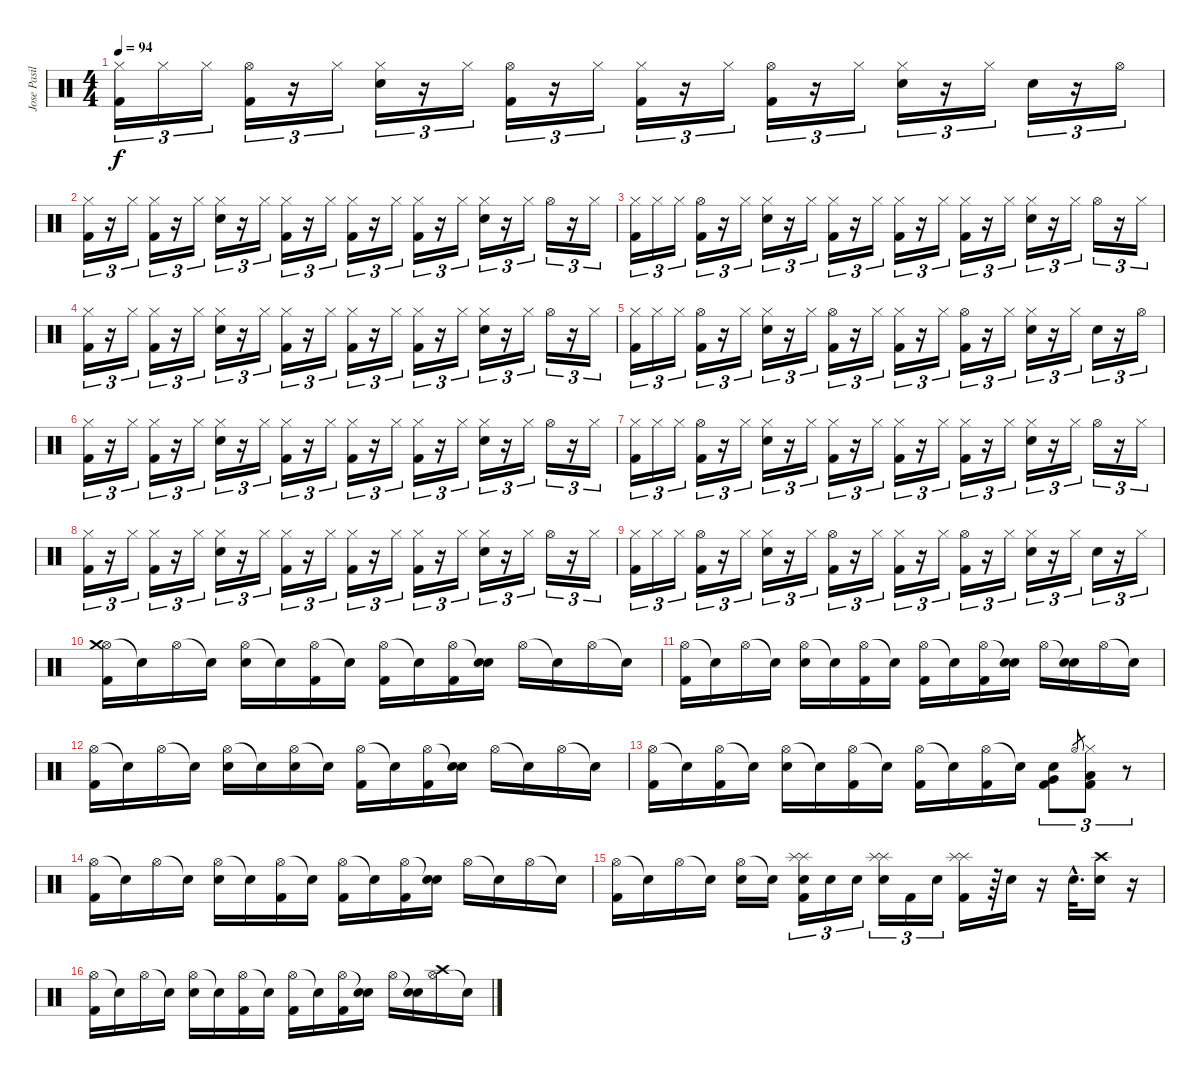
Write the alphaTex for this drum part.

\track ("Jose Pasillas" "Jose Pasil") {instrument percussion}
\staff {score}
\articulation defaults
\ts (4 4)
\tempo 94
\clef neutral
\ks c
("Hi-Hat (closed)" "Kick (hit) 2").16{tu (3 2) dy f} "Hi-Hat (closed)".16{tu (3 2)} "Hi-Hat (closed)".16{tu (3 2)} ("Hi-Hat (open)" "Kick (hit) 2").16{tu (3 2)} r.16{tu (3 2)} "Hi-Hat (closed)".16{tu (3 2)} ("Hi-Hat (closed)" "Electric Snare (hit)").16{tu (3 2)} r.16{tu (3 2)} "Hi-Hat (closed)".16{tu (3 2)} ("Hi-Hat (open)" "Kick (hit) 2").16{tu (3 2)} r.16{tu (3 2)} "Hi-Hat (closed)".16{tu (3 2)} ("Hi-Hat (closed)" "Kick (hit) 2").16{tu (3 2)} r.16{tu (3 2)} "Hi-Hat (closed)".16{tu (3 2)} ("Hi-Hat (open)" "Kick (hit) 2").16{tu (3 2)} r.16{tu (3 2)} "Hi-Hat (closed)".16{tu (3 2)} ("Hi-Hat (closed)" "Electric Snare (hit)").16{tu (3 2)} r.16{tu (3 2)} "Hi-Hat (closed)".16{tu (3 2)} "Electric Snare (hit)".16{tu (3 2)} r.16{tu (3 2)} "Hi-Hat (open)".16{tu (3 2)} |
("Hi-Hat (closed)" "Kick (hit) 2").16{tu (3 2)} r.16{tu (3 2)} "Hi-Hat (closed)".16{tu (3 2)} ("Hi-Hat (closed)" "Kick (hit) 2").16{tu (3 2)} r.16{tu (3 2)} "Hi-Hat (closed)".16{tu (3 2)} ("Hi-Hat (closed)" "Electric Snare (hit)").16{tu (3 2)} r.16{tu (3 2)} "Hi-Hat (closed)".16{tu (3 2)} ("Hi-Hat (closed)" "Kick (hit) 2").16{tu (3 2)} r.16{tu (3 2)} "Hi-Hat (closed)".16{tu (3 2)} ("Hi-Hat (closed)" "Kick (hit) 2").16{tu (3 2)} r.16{tu (3 2)} "Hi-Hat (closed)".16{tu (3 2)} ("Hi-Hat (closed)" "Kick (hit) 2").16{tu (3 2)} r.16{tu (3 2)} "Hi-Hat (closed)".16{tu (3 2)} ("Hi-Hat (closed)" "Electric Snare (hit)").16{tu (3 2)} r.16{tu (3 2)} "Hi-Hat (closed)".16{tu (3 2)} "Hi-Hat (open)".16{tu (3 2)} r.16{tu (3 2)} "Hi-Hat (closed)".16{tu (3 2)} |
("Hi-Hat (closed)" "Kick (hit) 2").16{tu (3 2)} "Hi-Hat (closed)".16{tu (3 2)} "Hi-Hat (closed)".16{tu (3 2)} ("Hi-Hat (open)" "Kick (hit) 2").16{tu (3 2)} r.16{tu (3 2)} "Hi-Hat (closed)".16{tu (3 2)} ("Hi-Hat (closed)" "Electric Snare (hit)").16{tu (3 2)} r.16{tu (3 2)} "Hi-Hat (closed)".16{tu (3 2)} ("Hi-Hat (closed)" "Kick (hit) 2").16{tu (3 2)} r.16{tu (3 2)} "Hi-Hat (closed)".16{tu (3 2)} ("Hi-Hat (closed)" "Kick (hit) 2").16{tu (3 2)} r.16{tu (3 2)} "Hi-Hat (closed)".16{tu (3 2)} ("Hi-Hat (closed)" "Kick (hit) 2").16{tu (3 2)} r.16{tu (3 2)} "Hi-Hat (closed)".16{tu (3 2)} ("Hi-Hat (closed)" "Electric Snare (hit)").16{tu (3 2)} r.16{tu (3 2)} "Hi-Hat (closed)".16{tu (3 2)} "Hi-Hat (open)".16{tu (3 2)} r.16{tu (3 2)} "Hi-Hat (closed)".16{tu (3 2)} |
("Hi-Hat (closed)" "Kick (hit) 2").16{tu (3 2)} r.16{tu (3 2)} "Hi-Hat (closed)".16{tu (3 2)} ("Hi-Hat (closed)" "Kick (hit) 2").16{tu (3 2)} r.16{tu (3 2)} "Hi-Hat (closed)".16{tu (3 2)} ("Hi-Hat (closed)" "Electric Snare (hit)").16{tu (3 2)} r.16{tu (3 2)} "Hi-Hat (closed)".16{tu (3 2)} ("Hi-Hat (closed)" "Kick (hit) 2").16{tu (3 2)} r.16{tu (3 2)} "Hi-Hat (closed)".16{tu (3 2)} ("Hi-Hat (closed)" "Kick (hit) 2").16{tu (3 2)} r.16{tu (3 2)} "Hi-Hat (closed)".16{tu (3 2)} ("Hi-Hat (closed)" "Kick (hit) 2").16{tu (3 2)} r.16{tu (3 2)} "Hi-Hat (closed)".16{tu (3 2)} ("Hi-Hat (closed)" "Electric Snare (hit)").16{tu (3 2)} r.16{tu (3 2)} "Hi-Hat (closed)".16{tu (3 2)} "Hi-Hat (open)".16{tu (3 2)} r.16{tu (3 2)} "Hi-Hat (closed)".16{tu (3 2)} |
("Hi-Hat (closed)" "Kick (hit) 2").16{tu (3 2)} "Hi-Hat (closed)".16{tu (3 2)} "Hi-Hat (closed)".16{tu (3 2)} ("Hi-Hat (open)" "Kick (hit) 2").16{tu (3 2)} r.16{tu (3 2)} "Hi-Hat (closed)".16{tu (3 2)} ("Hi-Hat (closed)" "Electric Snare (hit)").16{tu (3 2)} r.16{tu (3 2)} "Hi-Hat (closed)".16{tu (3 2)} ("Hi-Hat (open)" "Kick (hit) 2").16{tu (3 2)} r.16{tu (3 2)} "Hi-Hat (closed)".16{tu (3 2)} ("Hi-Hat (closed)" "Kick (hit) 2").16{tu (3 2)} r.16{tu (3 2)} "Hi-Hat (closed)".16{tu (3 2)} ("Hi-Hat (open)" "Kick (hit) 2").16{tu (3 2)} r.16{tu (3 2)} "Hi-Hat (closed)".16{tu (3 2)} ("Hi-Hat (closed)" "Electric Snare (hit)").16{tu (3 2)} r.16{tu (3 2)} "Hi-Hat (closed)".16{tu (3 2)} "Electric Snare (hit)".16{tu (3 2)} r.16{tu (3 2)} "Hi-Hat (open)".16{tu (3 2)} |
("Hi-Hat (closed)" "Kick (hit) 2").16{tu (3 2)} r.16{tu (3 2)} "Hi-Hat (closed)".16{tu (3 2)} ("Hi-Hat (closed)" "Kick (hit) 2").16{tu (3 2)} r.16{tu (3 2)} "Hi-Hat (closed)".16{tu (3 2)} ("Hi-Hat (closed)" "Electric Snare (hit)").16{tu (3 2)} r.16{tu (3 2)} "Hi-Hat (closed)".16{tu (3 2)} ("Hi-Hat (closed)" "Kick (hit) 2").16{tu (3 2)} r.16{tu (3 2)} "Hi-Hat (closed)".16{tu (3 2)} ("Hi-Hat (closed)" "Kick (hit) 2").16{tu (3 2)} r.16{tu (3 2)} "Hi-Hat (closed)".16{tu (3 2)} ("Hi-Hat (closed)" "Kick (hit) 2").16{tu (3 2)} r.16{tu (3 2)} "Hi-Hat (closed)".16{tu (3 2)} ("Hi-Hat (closed)" "Electric Snare (hit)").16{tu (3 2)} r.16{tu (3 2)} "Hi-Hat (closed)".16{tu (3 2)} "Hi-Hat (open)".16{tu (3 2)} r.16{tu (3 2)} "Hi-Hat (closed)".16{tu (3 2)} |
("Hi-Hat (closed)" "Kick (hit) 2").16{tu (3 2)} "Hi-Hat (closed)".16{tu (3 2)} "Hi-Hat (closed)".16{tu (3 2)} ("Hi-Hat (open)" "Kick (hit) 2").16{tu (3 2)} r.16{tu (3 2)} "Hi-Hat (closed)".16{tu (3 2)} ("Hi-Hat (closed)" "Electric Snare (hit)").16{tu (3 2)} r.16{tu (3 2)} "Hi-Hat (closed)".16{tu (3 2)} ("Hi-Hat (closed)" "Kick (hit) 2").16{tu (3 2)} r.16{tu (3 2)} "Hi-Hat (closed)".16{tu (3 2)} ("Hi-Hat (closed)" "Kick (hit) 2").16{tu (3 2)} r.16{tu (3 2)} "Hi-Hat (closed)".16{tu (3 2)} ("Hi-Hat (closed)" "Kick (hit) 2").16{tu (3 2)} r.16{tu (3 2)} "Hi-Hat (closed)".16{tu (3 2)} ("Hi-Hat (closed)" "Electric Snare (hit)").16{tu (3 2)} r.16{tu (3 2)} "Hi-Hat (closed)".16{tu (3 2)} "Hi-Hat (open)".16{tu (3 2)} r.16{tu (3 2)} "Hi-Hat (closed)".16{tu (3 2)} |
("Hi-Hat (closed)" "Kick (hit) 2").16{tu (3 2)} r.16{tu (3 2)} "Hi-Hat (closed)".16{tu (3 2)} ("Hi-Hat (closed)" "Kick (hit) 2").16{tu (3 2)} r.16{tu (3 2)} "Hi-Hat (closed)".16{tu (3 2)} ("Hi-Hat (closed)" "Electric Snare (hit)").16{tu (3 2)} r.16{tu (3 2)} "Hi-Hat (closed)".16{tu (3 2)} ("Hi-Hat (closed)" "Kick (hit) 2").16{tu (3 2)} r.16{tu (3 2)} "Hi-Hat (closed)".16{tu (3 2)} ("Hi-Hat (closed)" "Kick (hit) 2").16{tu (3 2)} r.16{tu (3 2)} "Hi-Hat (closed)".16{tu (3 2)} ("Hi-Hat (closed)" "Kick (hit) 2").16{tu (3 2)} r.16{tu (3 2)} "Hi-Hat (closed)".16{tu (3 2)} ("Hi-Hat (closed)" "Electric Snare (hit)").16{tu (3 2)} r.16{tu (3 2)} "Hi-Hat (closed)".16{tu (3 2)} "Hi-Hat (open)".16{tu (3 2)} r.16{tu (3 2)} "Hi-Hat (closed)".16{tu (3 2)} |
("Hi-Hat (closed)" "Kick (hit) 2").16{tu (3 2)} "Hi-Hat (closed)".16{tu (3 2)} "Hi-Hat (closed)".16{tu (3 2)} ("Hi-Hat (open)" "Kick (hit) 2").16{tu (3 2)} r.16{tu (3 2)} "Hi-Hat (closed)".16{tu (3 2)} ("Hi-Hat (closed)" "Electric Snare (hit)").16{tu (3 2)} r.16{tu (3 2)} "Hi-Hat (closed)".16{tu (3 2)} ("Hi-Hat (open)" "Kick (hit) 2").16{tu (3 2)} r.16{tu (3 2)} "Hi-Hat (closed)".16{tu (3 2)} ("Hi-Hat (closed)" "Kick (hit) 2").16{tu (3 2)} r.16{tu (3 2)} "Hi-Hat (closed)".16{tu (3 2)} ("Hi-Hat (open)" "Kick (hit) 2").16{tu (3 2)} r.16{tu (3 2)} "Hi-Hat (closed)".16{tu (3 2)} ("Hi-Hat (closed)" "Electric Snare (hit)").16{tu (3 2)} r.16{tu (3 2)} "Hi-Hat (closed)".16{tu (3 2)} "Electric Snare (hit)".16{tu (3 2)} r.16{tu (3 2)} "Hi-Hat (closed)".16{tu (3 2)} |
("Hi-Hat (open)" "Crash medium (hit)" "Kick (hit) 2").16 "Snare (hit)"{t}.16 "Hi-Hat (open)".16 "Snare (hit)"{t}.16 ("Hi-Hat (open)" "Electric Snare (hit)").16 "Snare (hit)"{t}.16 ("Hi-Hat (open)" "Kick (hit) 2").16 "Snare (hit)"{t}.16 ("Hi-Hat (open)" "Kick (hit) 2").16 "Snare (hit)"{t}.16 ("Hi-Hat (open)" "Kick (hit) 2").16 ("Snare (hit)"{t} "Electric Snare (hit)").16 "Hi-Hat (open)".16 "Snare (hit)"{t}.16 "Hi-Hat (open)".16 "Snare (hit)"{t}.16 |
("Hi-Hat (open)" "Kick (hit) 2").16 "Snare (hit)"{t}.16 "Hi-Hat (open)".16 "Snare (hit)"{t}.16 ("Hi-Hat (open)" "Electric Snare (hit)").16 "Snare (hit)"{t}.16 ("Hi-Hat (open)" "Kick (hit) 2").16 "Snare (hit)"{t}.16 ("Hi-Hat (open)" "Kick (hit) 2").16 "Snare (hit)"{t}.16 ("Hi-Hat (open)" "Kick (hit) 2").16 ("Snare (hit)"{t} "Electric Snare (hit)").16 "Hi-Hat (open)".16 ("Snare (hit)"{t} "Electric Snare (hit)").16 "Hi-Hat (open)".16 "Snare (hit)"{t}.16 |
("Hi-Hat (open)" "Kick (hit) 2").16 "Snare (hit)"{t}.16 "Hi-Hat (open)".16 "Snare (hit)"{t}.16 ("Hi-Hat (open)" "Electric Snare (hit)").16 "Snare (hit)"{t}.16 ("Hi-Hat (open)" "Electric Snare (hit)").16 "Snare (hit)"{t}.16 ("Hi-Hat (open)" "Kick (hit) 2").16 "Snare (hit)"{t}.16 ("Hi-Hat (open)" "Kick (hit) 2").16 ("Snare (hit)"{t} "Electric Snare (hit)").16 "Hi-Hat (open)".16 "Snare (hit)"{t}.16 "Hi-Hat (open)".16 "Snare (hit)"{t}.16 |
("Hi-Hat (open)" "Kick (hit) 2").16 "Snare (hit)"{t}.16 ("Hi-Hat (open)" "Kick (hit) 2").16 "Snare (hit)"{t}.16 ("Hi-Hat (open)" "Electric Snare (hit)").16 "Snare (hit)"{t}.16 ("Hi-Hat (open)" "Kick (hit) 2").16 "Snare (hit)"{t}.16 ("Hi-Hat (open)" "Kick (hit) 2").16 "Snare (hit)"{t}.16 ("Hi-Hat (open)" "Kick (hit) 2").16 "Snare (hit)"{t}.16 ("Kick (hit) 2" "Very Low Tom (hit)" "Electric Snare (hit)").8{tu (3 2)} "Hi-Hat (open)".8{gr} ("Hi-Hat (closed)" "Kick (hit) 2" "Low Floor Tom (hit)").8{tu (3 2)} r.8{tu (3 2)} |
("Hi-Hat (open)" "Kick (hit) 2").16 "Snare (hit)"{t}.16 "Hi-Hat (open)".16 "Snare (hit)"{t}.16 ("Hi-Hat (open)" "Electric Snare (hit)").16 "Snare (hit)"{t}.16 ("Hi-Hat (open)" "Kick (hit) 2").16 "Snare (hit)"{t}.16 ("Hi-Hat (open)" "Kick (hit) 2").16 "Snare (hit)"{t}.16 ("Hi-Hat (open)" "Kick (hit) 2").16 ("Snare (hit)"{t} "Electric Snare (hit)").16 "Hi-Hat (open)".16 "Snare (hit)"{t}.16 "Hi-Hat (open)".16 "Snare (hit)"{t}.16 |
("Hi-Hat (open)" "Kick (hit) 2").16 "Snare (hit)"{t}.16 "Hi-Hat (open)".16 "Snare (hit)"{t}.16 ("Hi-Hat (open)" "Electric Snare (hit)").16 "Snare (hit)"{t}.16 ("Splash (hit)" "Splash (hit)" "Electric Snare (hit)" "Kick (hit) 2").16{tu (3 2)} "Electric Snare (hit)".16{tu (3 2)} "Electric Snare (hit)".16{tu (3 2)} ("Splash (hit)" "Splash (hit)" "Electric Snare (hit)").16{tu (3 2)} "Kick (hit) 2".16{tu (3 2)} "Electric Snare (hit)".16{tu (3 2)} ("Splash (hit)" "Splash (hit)" "Kick (hit) 2").16 r.64 "Electric Snare (hit)".16 r.16 "Electric Snare (hit)"{hac}.32{d} ("Crash high (hit)" "Electric Snare (hit)").16 r.16 |
("Hi-Hat (open)" "Kick (hit) 2").16 "Snare (hit)"{t}.16 "Hi-Hat (open)".16 "Snare (hit)"{t}.16 ("Hi-Hat (open)" "Electric Snare (hit)").16 "Snare (hit)"{t}.16 ("Hi-Hat (open)" "Kick (hit) 2").16 "Snare (hit)"{t}.16 ("Hi-Hat (open)" "Kick (hit) 2").16 "Snare (hit)"{t}.16 ("Hi-Hat (open)" "Kick (hit) 2").16 ("Snare (hit)"{t} "Electric Snare (hit)").16 "Hi-Hat (open)".16 ("Snare (hit)"{t} "Electric Snare (hit)").16 ("Hi-Hat (open)" "Crash high (hit)").16 "Snare (hit)"{t}.16
